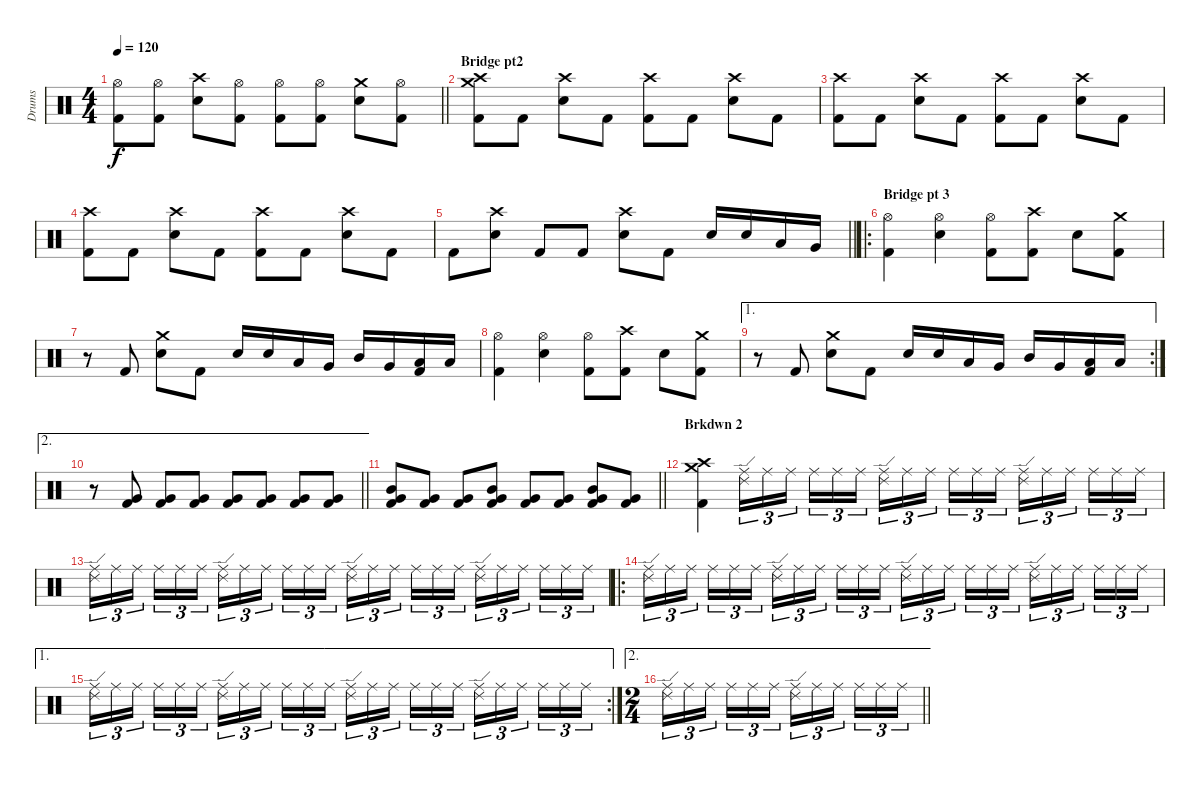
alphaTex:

\track ("Drums" "Drums") {instrument percussion}
\staff {score}
\articulation defaults
\ts (4 4)
\tempo 120
\clef neutral
\barLineRight lightlight
\ks c
("Hi-Hat (open)" "Kick (hit) 2").8{dy f} ("Hi-Hat (open)" "Kick (hit) 2").8 ("Crash high (hit)" "Electric Snare (hit)").8 ("Hi-Hat (open)" "Kick (hit) 2").8 ("Hi-Hat (open)" "Kick (hit) 2").8 ("Hi-Hat (open)" "Kick (hit) 2").8 ("Crash medium (hit)" "Electric Snare (hit)").8 ("Hi-Hat (open)" "Kick (hit) 2").8 |
\section ("" "Bridge pt2")
("Crash medium (hit)" "Crash high (hit)" "Kick (hit) 2").8 "Kick (hit) 2".8 ("Crash high (hit)" "Electric Snare (hit)").8 "Kick (hit) 2".8 ("Crash high (hit)" "Kick (hit) 2").8 "Kick (hit) 2".8 ("Crash high (hit)" "Electric Snare (hit)").8 "Kick (hit) 2".8 |
("Crash high (hit)" "Kick (hit) 2").8 "Kick (hit) 2".8 ("Crash high (hit)" "Electric Snare (hit)").8 "Kick (hit) 2".8 ("Crash high (hit)" "Kick (hit) 2").8 "Kick (hit) 2".8 ("Crash high (hit)" "Electric Snare (hit)").8 "Kick (hit) 2".8 |
("Crash high (hit)" "Kick (hit) 2").8 "Kick (hit) 2".8 ("Crash high (hit)" "Electric Snare (hit)").8 "Kick (hit) 2".8 ("Crash high (hit)" "Kick (hit) 2").8 "Kick (hit) 2".8 ("Crash high (hit)" "Electric Snare (hit)").8 "Kick (hit) 2".8 |
\barLineRight lightlight "Kick (hit) 2".8
("Crash high (hit)" "Electric Snare (hit)").8 "Kick (hit) 2".8 "Kick (hit) 2".8 ("Crash high (hit)" "Electric Snare (hit)").8 "Kick (hit) 2".8 "Electric Snare (hit)".16 "Electric Snare (hit)".16 "Low Tom (hit)".16 "Very Low Tom (hit)".16 |
\ro
\section ("" "Bridge pt 3")
("Hi-Hat (open)" "Kick (hit) 2").4 ("Hi-Hat (open)" "Electric Snare (hit)").4 ("Hi-Hat (open)" "Kick (hit) 2").8 ("Crash high (hit)" "Kick (hit) 2").8 "Electric Snare (hit)".8 ("Crash medium (hit)" "Kick (hit) 2").8 |
r.8 "Kick (hit) 2".8 ("Crash medium (hit)" "Electric Snare (hit)").8 "Kick (hit) 2".8 "Electric Snare (hit)".16 "Electric Snare (hit)".16 "Low Tom (hit)".16 "Very Low Tom (hit)".16 "Mid Tom (hit)".16 "Very Low Tom (hit)".16 ("Low Tom (hit)" "Kick (hit) 2").16 "Low Floor Tom (hit)".16 |
("Hi-Hat (open)" "Kick (hit) 2").4 ("Hi-Hat (open)" "Electric Snare (hit)").4 ("Hi-Hat (open)" "Kick (hit) 2").8 ("Crash high (hit)" "Kick (hit) 2").8 "Electric Snare (hit)".8 ("Crash medium (hit)" "Kick (hit) 2").8 |
\ae 1
\rc 2
r.8 "Kick (hit) 2".8 ("Crash medium (hit)" "Electric Snare (hit)").8 "Kick (hit) 2".8 "Electric Snare (hit)".16 "Electric Snare (hit)".16 "Low Tom (hit)".16 "Very Low Tom (hit)".16 "Mid Tom (hit)".16 "Very Low Tom (hit)".16 ("Low Tom (hit)" "Kick (hit) 2").16 "Low Floor Tom (hit)".16 |
\ae 2
\barLineRight lightlight
r.8 ("Very Low Tom (hit)" "Kick (hit) 2").8 ("Very Low Tom (hit)" "Kick (hit) 2").8 ("Very Low Tom (hit)" "Kick (hit) 2").8 ("Very Low Tom (hit)" "Kick (hit) 2").8 ("Very Low Tom (hit)" "Kick (hit) 2").8 ("Very Low Tom (hit)" "Kick (hit) 2").8 ("Very Low Tom (hit)" "Kick (hit) 2").8 |
\barLineRight lightlight
("Mid Tom (hit)" "Very Low Tom (hit)" "Kick (hit) 2").8 ("Very Low Tom (hit)" "Kick (hit) 2").8 ("Very Low Tom (hit)" "Kick (hit) 2").8 ("Mid Tom (hit)" "Very Low Tom (hit)" "Kick (hit) 2").8 ("Very Low Tom (hit)" "Kick (hit) 2").8 ("Very Low Tom (hit)" "Kick (hit) 2").8 ("Mid Tom (hit)" "Very Low Tom (hit)" "Kick (hit) 2").8 ("Very Low Tom (hit)" "Kick (hit) 2").8 |
\section ("" "Brkdwn 2")
("Crash medium (hit)" "Crash high (hit)" "Kick (hit) 2").4 ("Ride (edge) 2" "Ride (middle)").16{tu (3 2)} "Ride (middle)".16{tu (3 2)} "Ride (middle)".16{tu (3 2) beam splitsecondary} "Ride (middle)".16{tu (3 2)} "Ride (middle)".16{tu (3 2)} "Ride (middle)".16{tu (3 2)} ("Ride (edge) 2" "Ride (middle)").16{tu (3 2)} "Ride (middle)".16{tu (3 2)} "Ride (middle)".16{tu (3 2) beam splitsecondary} "Ride (middle)".16{tu (3 2)} "Ride (middle)".16{tu (3 2)} "Ride (middle)".16{tu (3 2)} ("Ride (edge) 2" "Ride (middle)").16{tu (3 2)} "Ride (middle)".16{tu (3 2)} "Ride (middle)".16{tu (3 2) beam splitsecondary} "Ride (middle)".16{tu (3 2)} "Ride (middle)".16{tu (3 2)} "Ride (middle)".16{tu (3 2)} |
("Ride (edge) 2" "Ride (middle)").16{tu (3 2)} "Ride (middle)".16{tu (3 2)} "Ride (middle)".16{tu (3 2) beam splitsecondary} "Ride (middle)".16{tu (3 2)} "Ride (middle)".16{tu (3 2)} "Ride (middle)".16{tu (3 2)} ("Ride (edge) 2" "Ride (middle)").16{tu (3 2)} "Ride (middle)".16{tu (3 2)} "Ride (middle)".16{tu (3 2) beam splitsecondary} "Ride (middle)".16{tu (3 2)} "Ride (middle)".16{tu (3 2)} "Ride (middle)".16{tu (3 2)} ("Ride (edge) 2" "Ride (middle)").16{tu (3 2)} "Ride (middle)".16{tu (3 2)} "Ride (middle)".16{tu (3 2) beam splitsecondary} "Ride (middle)".16{tu (3 2)} "Ride (middle)".16{tu (3 2)} "Ride (middle)".16{tu (3 2)} ("Ride (edge) 2" "Ride (middle)").16{tu (3 2)} "Ride (middle)".16{tu (3 2)} "Ride (middle)".16{tu (3 2) beam splitsecondary} "Ride (middle)".16{tu (3 2)} "Ride (middle)".16{tu (3 2)} "Ride (middle)".16{tu (3 2)} |
\ro
("Ride (edge) 2" "Ride (middle)").16{tu (3 2)} "Ride (middle)".16{tu (3 2)} "Ride (middle)".16{tu (3 2) beam splitsecondary} "Ride (middle)".16{tu (3 2)} "Ride (middle)".16{tu (3 2)} "Ride (middle)".16{tu (3 2)} ("Ride (edge) 2" "Ride (middle)").16{tu (3 2)} "Ride (middle)".16{tu (3 2)} "Ride (middle)".16{tu (3 2) beam splitsecondary} "Ride (middle)".16{tu (3 2)} "Ride (middle)".16{tu (3 2)} "Ride (middle)".16{tu (3 2)} ("Ride (edge) 2" "Ride (middle)").16{tu (3 2)} "Ride (middle)".16{tu (3 2)} "Ride (middle)".16{tu (3 2) beam splitsecondary} "Ride (middle)".16{tu (3 2)} "Ride (middle)".16{tu (3 2)} "Ride (middle)".16{tu (3 2)} ("Ride (edge) 2" "Ride (middle)").16{tu (3 2)} "Ride (middle)".16{tu (3 2)} "Ride (middle)".16{tu (3 2) beam splitsecondary} "Ride (middle)".16{tu (3 2)} "Ride (middle)".16{tu (3 2)} "Ride (middle)".16{tu (3 2)} |
\ae 1
\rc 2
("Ride (edge) 2" "Ride (middle)").16{tu (3 2)} "Ride (middle)".16{tu (3 2)} "Ride (middle)".16{tu (3 2) beam splitsecondary} "Ride (middle)".16{tu (3 2)} "Ride (middle)".16{tu (3 2)} "Ride (middle)".16{tu (3 2)} ("Ride (edge) 2" "Ride (middle)").16{tu (3 2)} "Ride (middle)".16{tu (3 2)} "Ride (middle)".16{tu (3 2) beam splitsecondary} "Ride (middle)".16{tu (3 2)} "Ride (middle)".16{tu (3 2)} "Ride (middle)".16{tu (3 2)} ("Ride (edge) 2" "Ride (middle)").16{tu (3 2)} "Ride (middle)".16{tu (3 2)} "Ride (middle)".16{tu (3 2) beam splitsecondary} "Ride (middle)".16{tu (3 2)} "Ride (middle)".16{tu (3 2)} "Ride (middle)".16{tu (3 2)} ("Ride (edge) 2" "Ride (middle)").16{tu (3 2)} "Ride (middle)".16{tu (3 2)} "Ride (middle)".16{tu (3 2) beam splitsecondary} "Ride (middle)".16{tu (3 2)} "Ride (middle)".16{tu (3 2)} "Ride (middle)".16{tu (3 2)} |
\ae 2
\ts (2 4)
\barLineRight lightlight
("Ride (edge) 2" "Ride (middle)").16{tu (3 2)} "Ride (middle)".16{tu (3 2)} "Ride (middle)".16{tu (3 2) beam splitsecondary} "Ride (middle)".16{tu (3 2)} "Ride (middle)".16{tu (3 2)} "Ride (middle)".16{tu (3 2)} ("Ride (edge) 2" "Ride (middle)").16{tu (3 2)} "Ride (middle)".16{tu (3 2)} "Ride (middle)".16{tu (3 2) beam splitsecondary} "Ride (middle)".16{tu (3 2)} "Ride (middle)".16{tu (3 2)} "Ride (middle)".16{tu (3 2)}
